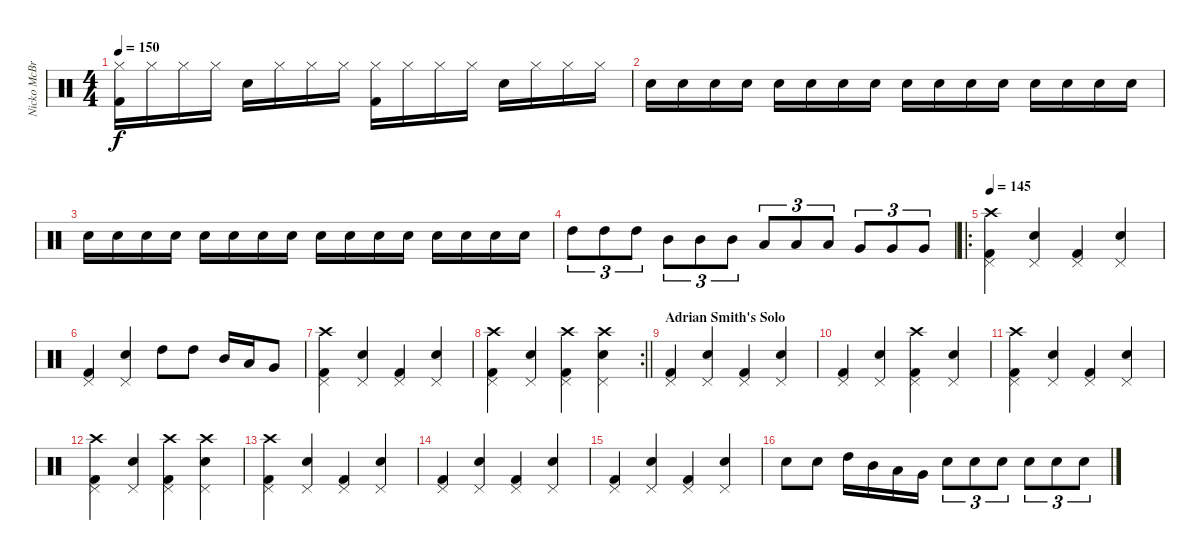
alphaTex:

\track ("Nicko McBrain" "Nicko McBr") {instrument percussion}
\staff {score}
\articulation defaults
\ts (4 4)
\tempo 150
\clef neutral
\ks c
("Hi-Hat (closed)" "Kick (hit) 2").16{dy f} "Hi-Hat (closed)".16 "Hi-Hat (closed)".16 "Hi-Hat (closed)".16 "Snare (hit) 2".16 "Hi-Hat (closed)".16 "Hi-Hat (closed)".16 "Hi-Hat (closed)".16 ("Hi-Hat (closed)" "Kick (hit) 2").16 "Hi-Hat (closed)".16 "Hi-Hat (closed)".16 "Hi-Hat (closed)".16 "Snare (hit) 2".16 "Hi-Hat (closed)".16 "Hi-Hat (closed)".16 "Hi-Hat (closed)".16 |
"Snare (hit) 2".16 "Snare (hit) 2".16 "Snare (hit) 2".16 "Snare (hit) 2".16 "Snare (hit) 2".16 "Snare (hit) 2".16 "Snare (hit) 2".16 "Snare (hit) 2".16 "Snare (hit) 2".16 "Snare (hit) 2".16 "Snare (hit) 2".16 "Snare (hit) 2".16 "Snare (hit) 2".16 "Snare (hit) 2".16 "Snare (hit) 2".16 "Snare (hit) 2".16 |
"Snare (hit) 2".16 "Snare (hit) 2".16 "Snare (hit) 2".16 "Snare (hit) 2".16 "Snare (hit) 2".16 "Snare (hit) 2".16 "Snare (hit) 2".16 "Snare (hit) 2".16 "Snare (hit) 2".16 "Snare (hit) 2".16 "Snare (hit) 2".16 "Snare (hit) 2".16 "Snare (hit) 2".16 "Snare (hit) 2".16 "Snare (hit) 2".16 "Snare (hit) 2".16 |
"High Tom (hit)".8{tu (3 2)} "High Tom (hit)".8{tu (3 2)} "High Tom (hit)".8{tu (3 2)} "Mid Tom (hit)".8{tu (3 2)} "Mid Tom (hit)".8{tu (3 2)} "Mid Tom (hit)".8{tu (3 2)} "Low Tom (hit)".8{tu (3 2)} "Low Tom (hit)".8{tu (3 2)} "Low Tom (hit)".8{tu (3 2)} "Very Low Tom (hit)".8{tu (3 2)} "Very Low Tom (hit)".8{tu (3 2)} "Very Low Tom (hit)".8{tu (3 2)} |
\ro
\tempo 145
("Pedal Hi-Hat (hit)" "Kick (hit) 2" "Crash high (hit)").4 ("Pedal Hi-Hat (hit)" "Snare (hit) 2").4 ("Pedal Hi-Hat (hit)" "Kick (hit) 2").4 ("Pedal Hi-Hat (hit)" "Snare (hit) 2").4 |
("Pedal Hi-Hat (hit)" "Kick (hit) 2").4 ("Pedal Hi-Hat (hit)" "Snare (hit) 2").4 "High Tom (hit)".8 "High Tom (hit)".8 "Mid Tom (hit)".16 "Low Tom (hit)".16 "Very Low Tom (hit)".8 |
("Pedal Hi-Hat (hit)" "Kick (hit) 2" "Crash high (hit)").4 ("Pedal Hi-Hat (hit)" "Snare (hit) 2").4 ("Pedal Hi-Hat (hit)" "Kick (hit) 2").4 ("Pedal Hi-Hat (hit)" "Snare (hit) 2").4 |
\rc 2
\barLineRight lightlight
("Pedal Hi-Hat (hit)" "Kick (hit) 2" "Crash high (hit)").4 ("Pedal Hi-Hat (hit)" "Snare (hit) 2").4 ("Pedal Hi-Hat (hit)" "Kick (hit) 2" "Crash high (hit)").4 ("Pedal Hi-Hat (hit)" "Snare (hit) 2" "Crash high (hit)").4 |
\section ("" "Adrian Smith's Solo")
("Pedal Hi-Hat (hit)" "Kick (hit) 2").4 ("Pedal Hi-Hat (hit)" "Snare (hit) 2").4 ("Pedal Hi-Hat (hit)" "Kick (hit) 2").4 ("Pedal Hi-Hat (hit)" "Snare (hit) 2").4 |
("Pedal Hi-Hat (hit)" "Kick (hit) 2").4 ("Pedal Hi-Hat (hit)" "Snare (hit) 2").4 ("Pedal Hi-Hat (hit)" "Kick (hit) 2" "Crash high (hit)").4 ("Pedal Hi-Hat (hit)" "Snare (hit) 2").4 |
("Pedal Hi-Hat (hit)" "Kick (hit) 2" "Crash high (hit)").4 ("Pedal Hi-Hat (hit)" "Snare (hit) 2").4 ("Pedal Hi-Hat (hit)" "Kick (hit) 2").4 ("Pedal Hi-Hat (hit)" "Snare (hit) 2").4 |
("Pedal Hi-Hat (hit)" "Kick (hit) 2" "Crash high (hit)").4 ("Pedal Hi-Hat (hit)" "Snare (hit) 2").4 ("Pedal Hi-Hat (hit)" "Kick (hit) 2" "Crash high (hit)").4 ("Pedal Hi-Hat (hit)" "Snare (hit) 2" "Crash high (hit)").4 |
("Pedal Hi-Hat (hit)" "Kick (hit) 2" "Crash high (hit)").4 ("Pedal Hi-Hat (hit)" "Snare (hit) 2").4 ("Pedal Hi-Hat (hit)" "Kick (hit) 2").4 ("Pedal Hi-Hat (hit)" "Snare (hit) 2").4 |
("Pedal Hi-Hat (hit)" "Kick (hit) 2").4 ("Pedal Hi-Hat (hit)" "Snare (hit) 2").4 ("Pedal Hi-Hat (hit)" "Kick (hit) 2").4 ("Pedal Hi-Hat (hit)" "Snare (hit) 2").4 |
("Pedal Hi-Hat (hit)" "Kick (hit) 2").4 ("Pedal Hi-Hat (hit)" "Snare (hit) 2").4 ("Pedal Hi-Hat (hit)" "Kick (hit) 2").4 ("Pedal Hi-Hat (hit)" "Snare (hit) 2").4 |
"Snare (hit) 2".8 "Snare (hit) 2".8 "High Tom (hit)".16 "Mid Tom (hit)".16 "Low Tom (hit)".16 "Very Low Tom (hit)".16 "Snare (hit) 2".8{tu (3 2)} "Snare (hit) 2".8{tu (3 2)} "Snare (hit) 2".8{tu (3 2)} "Snare (hit) 2".8{tu (3 2)} "Snare (hit) 2".8{tu (3 2)} "Snare (hit) 2".8{tu (3 2)}
